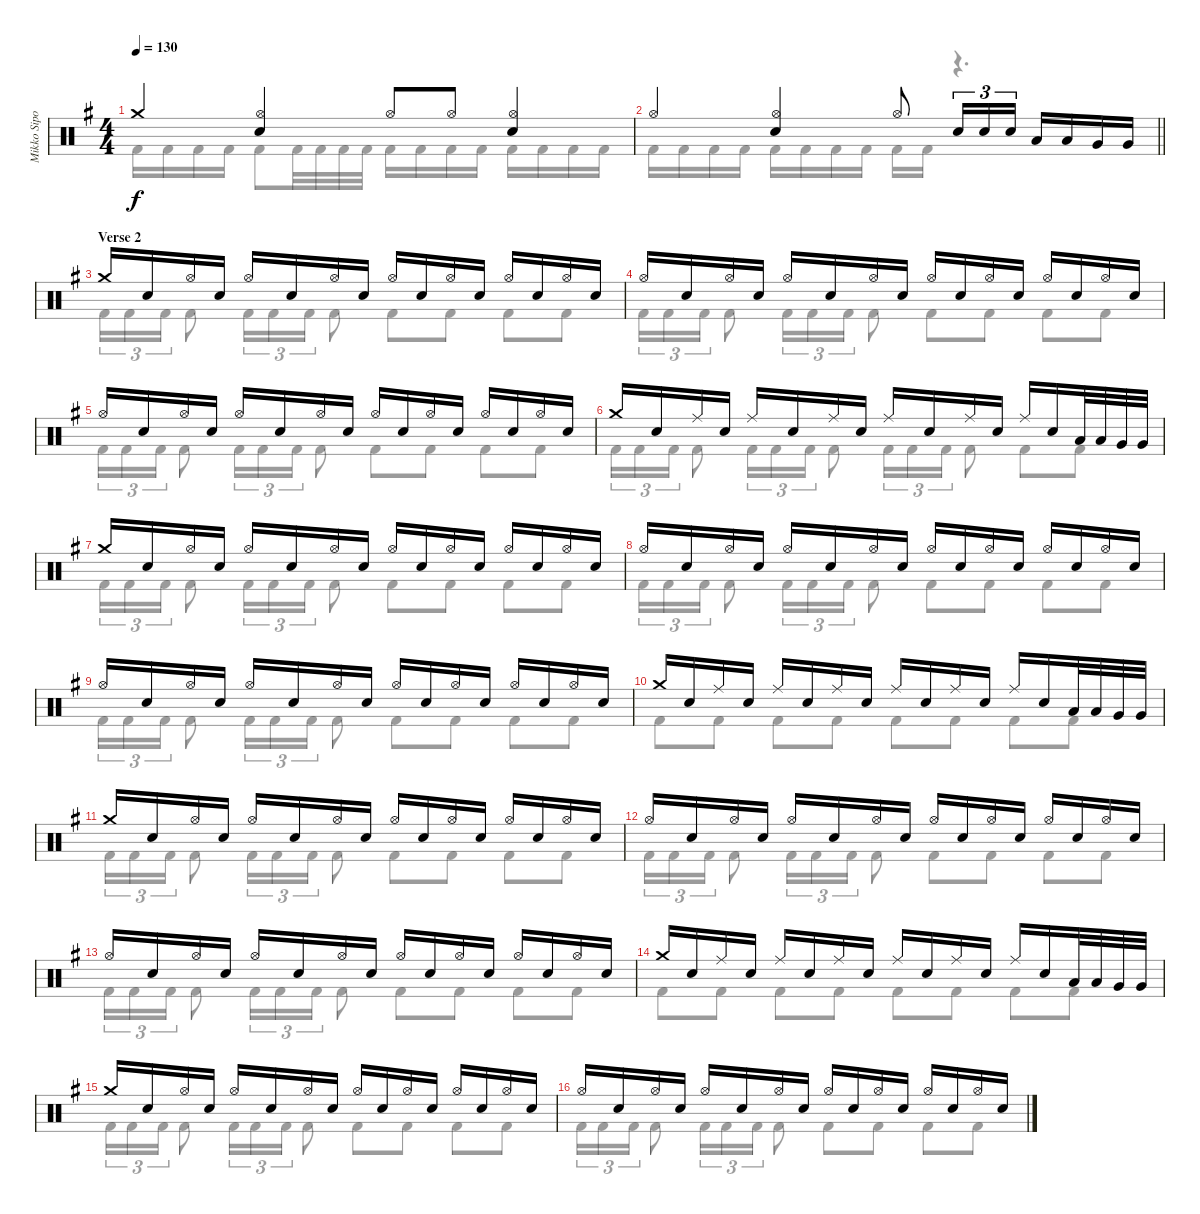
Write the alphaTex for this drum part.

\track ("Mikko Sipola (drums)" "Mikko Sipo") {instrument percussion}
\staff {score}
\articulation defaults
\voice
\ts (4 4)
\tempo 130
\clef neutral
\ks eminor "Crash medium (hit)".4{dy f}
("Hi-Hat (open)" "Electric Snare (hit)").4 "Hi-Hat (open)".8 "Hi-Hat (open)".8 ("Hi-Hat (open)" "Electric Snare (hit)").4 |
\barLineRight lightlight "Hi-Hat (open)".4
("Hi-Hat (open)" "Electric Snare (hit)").4 "Hi-Hat (open)".8 "Electric Snare (hit)".16{tu (3 2)} "Electric Snare (hit)".16{tu (3 2)} "Electric Snare (hit)".16{tu (3 2)} "Low Tom (hit)".16 "Low Tom (hit)".16 "Very Low Tom (hit)".16 "Very Low Tom (hit)".16 |
\section ("" "Verse 2")
"Crash medium (hit)".16 "Electric Snare (hit)".16 "Hi-Hat (open)".16 "Electric Snare (hit)".16 "Hi-Hat (open)".16 "Electric Snare (hit)".16 "Hi-Hat (open)".16 "Electric Snare (hit)".16 "Hi-Hat (open)".16 "Electric Snare (hit)".16 "Hi-Hat (open)".16 "Electric Snare (hit)".16 "Hi-Hat (open)".16 "Electric Snare (hit)".16 "Hi-Hat (open)".16 "Electric Snare (hit)".16 |
"Hi-Hat (open)".16 "Electric Snare (hit)".16 "Hi-Hat (open)".16 "Electric Snare (hit)".16 "Hi-Hat (open)".16 "Electric Snare (hit)".16 "Hi-Hat (open)".16 "Electric Snare (hit)".16 "Hi-Hat (open)".16 "Electric Snare (hit)".16 "Hi-Hat (open)".16 "Electric Snare (hit)".16 "Hi-Hat (open)".16 "Electric Snare (hit)".16 "Hi-Hat (open)".16 "Electric Snare (hit)".16 |
"Hi-Hat (open)".16 "Electric Snare (hit)".16 "Hi-Hat (open)".16 "Electric Snare (hit)".16 "Hi-Hat (open)".16 "Electric Snare (hit)".16 "Hi-Hat (open)".16 "Electric Snare (hit)".16 "Hi-Hat (open)".16 "Electric Snare (hit)".16 "Hi-Hat (open)".16 "Electric Snare (hit)".16 "Hi-Hat (open)".16 "Electric Snare (hit)".16 "Hi-Hat (open)".16 "Electric Snare (hit)".16 |
"Crash medium (hit)".16 "Electric Snare (hit)".16 "Ride (middle)".16 "Electric Snare (hit)".16 "Ride (middle)".16 "Electric Snare (hit)".16 "Ride (middle)".16 "Electric Snare (hit)".16 "Ride (middle)".16 "Electric Snare (hit)".16 "Ride (middle)".16 "Electric Snare (hit)".16 "Ride (middle)".16 "Electric Snare (hit)".16 "Low Tom (hit)".32 "Low Tom (hit)".32 "Very Low Tom (hit)".32 "Very Low Tom (hit)".32 |
"Crash medium (hit)".16 "Electric Snare (hit)".16 "Hi-Hat (open)".16 "Electric Snare (hit)".16 "Hi-Hat (open)".16 "Electric Snare (hit)".16 "Hi-Hat (open)".16 "Electric Snare (hit)".16 "Hi-Hat (open)".16 "Electric Snare (hit)".16 "Hi-Hat (open)".16 "Electric Snare (hit)".16 "Hi-Hat (open)".16 "Electric Snare (hit)".16 "Hi-Hat (open)".16 "Electric Snare (hit)".16 |
"Hi-Hat (open)".16 "Electric Snare (hit)".16 "Hi-Hat (open)".16 "Electric Snare (hit)".16 "Hi-Hat (open)".16 "Electric Snare (hit)".16 "Hi-Hat (open)".16 "Electric Snare (hit)".16 "Hi-Hat (open)".16 "Electric Snare (hit)".16 "Hi-Hat (open)".16 "Electric Snare (hit)".16 "Hi-Hat (open)".16 "Electric Snare (hit)".16 "Hi-Hat (open)".16 "Electric Snare (hit)".16 |
"Hi-Hat (open)".16 "Electric Snare (hit)".16 "Hi-Hat (open)".16 "Electric Snare (hit)".16 "Hi-Hat (open)".16 "Electric Snare (hit)".16 "Hi-Hat (open)".16 "Electric Snare (hit)".16 "Hi-Hat (open)".16 "Electric Snare (hit)".16 "Hi-Hat (open)".16 "Electric Snare (hit)".16 "Hi-Hat (open)".16 "Electric Snare (hit)".16 "Hi-Hat (open)".16 "Electric Snare (hit)".16 |
"Crash medium (hit)".16 "Electric Snare (hit)".16 "Ride (middle)".16 "Electric Snare (hit)".16 "Ride (middle)".16 "Electric Snare (hit)".16 "Ride (middle)".16 "Electric Snare (hit)".16 "Ride (middle)".16 "Electric Snare (hit)".16 "Ride (middle)".16 "Electric Snare (hit)".16 "Ride (middle)".16 "Electric Snare (hit)".16 "Low Tom (hit)".32 "Low Tom (hit)".32 "Very Low Tom (hit)".32 "Very Low Tom (hit)".32 |
"Crash medium (hit)".16 "Electric Snare (hit)".16 "Hi-Hat (open)".16 "Electric Snare (hit)".16 "Hi-Hat (open)".16 "Electric Snare (hit)".16 "Hi-Hat (open)".16 "Electric Snare (hit)".16 "Hi-Hat (open)".16 "Electric Snare (hit)".16 "Hi-Hat (open)".16 "Electric Snare (hit)".16 "Hi-Hat (open)".16 "Electric Snare (hit)".16 "Hi-Hat (open)".16 "Electric Snare (hit)".16 |
"Hi-Hat (open)".16 "Electric Snare (hit)".16 "Hi-Hat (open)".16 "Electric Snare (hit)".16 "Hi-Hat (open)".16 "Electric Snare (hit)".16 "Hi-Hat (open)".16 "Electric Snare (hit)".16 "Hi-Hat (open)".16 "Electric Snare (hit)".16 "Hi-Hat (open)".16 "Electric Snare (hit)".16 "Hi-Hat (open)".16 "Electric Snare (hit)".16 "Hi-Hat (open)".16 "Electric Snare (hit)".16 |
"Hi-Hat (open)".16 "Electric Snare (hit)".16 "Hi-Hat (open)".16 "Electric Snare (hit)".16 "Hi-Hat (open)".16 "Electric Snare (hit)".16 "Hi-Hat (open)".16 "Electric Snare (hit)".16 "Hi-Hat (open)".16 "Electric Snare (hit)".16 "Hi-Hat (open)".16 "Electric Snare (hit)".16 "Hi-Hat (open)".16 "Electric Snare (hit)".16 "Hi-Hat (open)".16 "Electric Snare (hit)".16 |
"Crash medium (hit)".16 "Electric Snare (hit)".16 "Ride (middle)".16 "Electric Snare (hit)".16 "Ride (middle)".16 "Electric Snare (hit)".16 "Ride (middle)".16 "Electric Snare (hit)".16 "Ride (middle)".16 "Electric Snare (hit)".16 "Ride (middle)".16 "Electric Snare (hit)".16 "Ride (middle)".16 "Electric Snare (hit)".16 "Low Tom (hit)".32 "Low Tom (hit)".32 "Very Low Tom (hit)".32 "Very Low Tom (hit)".32 |
"Crash medium (hit)".16 "Electric Snare (hit)".16 "Hi-Hat (open)".16 "Electric Snare (hit)".16 "Hi-Hat (open)".16 "Electric Snare (hit)".16 "Hi-Hat (open)".16 "Electric Snare (hit)".16 "Hi-Hat (open)".16 "Electric Snare (hit)".16 "Hi-Hat (open)".16 "Electric Snare (hit)".16 "Hi-Hat (open)".16 "Electric Snare (hit)".16 "Hi-Hat (open)".16 "Electric Snare (hit)".16 |
"Hi-Hat (open)".16 "Electric Snare (hit)".16 "Hi-Hat (open)".16 "Electric Snare (hit)".16 "Hi-Hat (open)".16 "Electric Snare (hit)".16 "Hi-Hat (open)".16 "Electric Snare (hit)".16 "Hi-Hat (open)".16 "Electric Snare (hit)".16 "Hi-Hat (open)".16 "Electric Snare (hit)".16 "Hi-Hat (open)".16 "Electric Snare (hit)".16 "Hi-Hat (open)".16 "Electric Snare (hit)".16
\voice
\clef neutral
\ottava regular
\simile none
\ks eminor "Kick (hit) 2".16{dy f} "Kick (hit) 2".16 "Kick (hit) 2".16 "Kick (hit) 2".16 "Kick (hit) 2".8 "Kick (hit) 2".32 "Kick (hit) 2".32 "Kick (hit) 2".32 "Kick (hit) 2".32 "Kick (hit) 2".16 "Kick (hit) 2".16 "Kick (hit) 2".16 "Kick (hit) 2".16 "Kick (hit) 2".16 "Kick (hit) 2".16 "Kick (hit) 2".16 "Kick (hit) 2".16
|
\barLineRight lightlight "Kick (hit) 2".16 "Kick (hit) 2".16 "Kick (hit) 2".16 "Kick (hit) 2".16 "Kick (hit) 2".16 "Kick (hit) 2".16 "Kick (hit) 2".16 "Kick (hit) 2".16 "Kick (hit) 2".16 "Kick (hit) 2".16
r.4{d} |
"Kick (hit) 2".16{tu (3 2)} "Kick (hit) 2".16{tu (3 2)} "Kick (hit) 2".16{tu (3 2)} "Kick (hit) 2".8 "Kick (hit) 2".16{tu (3 2)} "Kick (hit) 2".16{tu (3 2)} "Kick (hit) 2".16{tu (3 2)} "Kick (hit) 2".8 "Kick (hit) 2".8 "Kick (hit) 2".8 "Kick (hit) 2".8 "Kick (hit) 2".8 |
"Kick (hit) 2".16{tu (3 2)} "Kick (hit) 2".16{tu (3 2)} "Kick (hit) 2".16{tu (3 2)} "Kick (hit) 2".8 "Kick (hit) 2".16{tu (3 2)} "Kick (hit) 2".16{tu (3 2)} "Kick (hit) 2".16{tu (3 2)} "Kick (hit) 2".8 "Kick (hit) 2".8 "Kick (hit) 2".8 "Kick (hit) 2".8 "Kick (hit) 2".8 |
"Kick (hit) 2".16{tu (3 2)} "Kick (hit) 2".16{tu (3 2)} "Kick (hit) 2".16{tu (3 2)} "Kick (hit) 2".8 "Kick (hit) 2".16{tu (3 2)} "Kick (hit) 2".16{tu (3 2)} "Kick (hit) 2".16{tu (3 2)} "Kick (hit) 2".8 "Kick (hit) 2".8 "Kick (hit) 2".8 "Kick (hit) 2".8 "Kick (hit) 2".8 |
"Kick (hit) 2".16{tu (3 2)} "Kick (hit) 2".16{tu (3 2)} "Kick (hit) 2".16{tu (3 2)} "Kick (hit) 2".8 "Kick (hit) 2".16{tu (3 2)} "Kick (hit) 2".16{tu (3 2)} "Kick (hit) 2".16{tu (3 2)} "Kick (hit) 2".8 "Kick (hit) 2".16{tu (3 2)} "Kick (hit) 2".16{tu (3 2)} "Kick (hit) 2".16{tu (3 2)} "Kick (hit) 2".8 "Kick (hit) 2".8 "Kick (hit) 2".8 |
"Kick (hit) 2".16{tu (3 2)} "Kick (hit) 2".16{tu (3 2)} "Kick (hit) 2".16{tu (3 2)} "Kick (hit) 2".8 "Kick (hit) 2".16{tu (3 2)} "Kick (hit) 2".16{tu (3 2)} "Kick (hit) 2".16{tu (3 2)} "Kick (hit) 2".8 "Kick (hit) 2".8 "Kick (hit) 2".8 "Kick (hit) 2".8 "Kick (hit) 2".8 |
"Kick (hit) 2".16{tu (3 2)} "Kick (hit) 2".16{tu (3 2)} "Kick (hit) 2".16{tu (3 2)} "Kick (hit) 2".8 "Kick (hit) 2".16{tu (3 2)} "Kick (hit) 2".16{tu (3 2)} "Kick (hit) 2".16{tu (3 2)} "Kick (hit) 2".8 "Kick (hit) 2".8 "Kick (hit) 2".8 "Kick (hit) 2".8 "Kick (hit) 2".8 |
"Kick (hit) 2".16{tu (3 2)} "Kick (hit) 2".16{tu (3 2)} "Kick (hit) 2".16{tu (3 2)} "Kick (hit) 2".8 "Kick (hit) 2".16{tu (3 2)} "Kick (hit) 2".16{tu (3 2)} "Kick (hit) 2".16{tu (3 2)} "Kick (hit) 2".8 "Kick (hit) 2".8 "Kick (hit) 2".8 "Kick (hit) 2".8 "Kick (hit) 2".8 |
"Kick (hit) 2".8 "Kick (hit) 2".8 "Kick (hit) 2".8 "Kick (hit) 2".8 "Kick (hit) 2".8 "Kick (hit) 2".8 "Kick (hit) 2".8 "Kick (hit) 2".8 |
"Kick (hit) 2".16{tu (3 2)} "Kick (hit) 2".16{tu (3 2)} "Kick (hit) 2".16{tu (3 2)} "Kick (hit) 2".8 "Kick (hit) 2".16{tu (3 2)} "Kick (hit) 2".16{tu (3 2)} "Kick (hit) 2".16{tu (3 2)} "Kick (hit) 2".8 "Kick (hit) 2".8 "Kick (hit) 2".8 "Kick (hit) 2".8 "Kick (hit) 2".8 |
"Kick (hit) 2".16{tu (3 2)} "Kick (hit) 2".16{tu (3 2)} "Kick (hit) 2".16{tu (3 2)} "Kick (hit) 2".8 "Kick (hit) 2".16{tu (3 2)} "Kick (hit) 2".16{tu (3 2)} "Kick (hit) 2".16{tu (3 2)} "Kick (hit) 2".8 "Kick (hit) 2".8 "Kick (hit) 2".8 "Kick (hit) 2".8 "Kick (hit) 2".8 |
"Kick (hit) 2".16{tu (3 2)} "Kick (hit) 2".16{tu (3 2)} "Kick (hit) 2".16{tu (3 2)} "Kick (hit) 2".8 "Kick (hit) 2".16{tu (3 2)} "Kick (hit) 2".16{tu (3 2)} "Kick (hit) 2".16{tu (3 2)} "Kick (hit) 2".8 "Kick (hit) 2".8 "Kick (hit) 2".8 "Kick (hit) 2".8 "Kick (hit) 2".8 |
"Kick (hit) 2".8 "Kick (hit) 2".8 "Kick (hit) 2".8 "Kick (hit) 2".8 "Kick (hit) 2".8 "Kick (hit) 2".8 "Kick (hit) 2".8 "Kick (hit) 2".8 |
"Kick (hit) 2".16{tu (3 2)} "Kick (hit) 2".16{tu (3 2)} "Kick (hit) 2".16{tu (3 2)} "Kick (hit) 2".8 "Kick (hit) 2".16{tu (3 2)} "Kick (hit) 2".16{tu (3 2)} "Kick (hit) 2".16{tu (3 2)} "Kick (hit) 2".8 "Kick (hit) 2".8 "Kick (hit) 2".8 "Kick (hit) 2".8 "Kick (hit) 2".8 |
"Kick (hit) 2".16{tu (3 2)} "Kick (hit) 2".16{tu (3 2)} "Kick (hit) 2".16{tu (3 2)} "Kick (hit) 2".8 "Kick (hit) 2".16{tu (3 2)} "Kick (hit) 2".16{tu (3 2)} "Kick (hit) 2".16{tu (3 2)} "Kick (hit) 2".8 "Kick (hit) 2".8 "Kick (hit) 2".8 "Kick (hit) 2".8 "Kick (hit) 2".8
